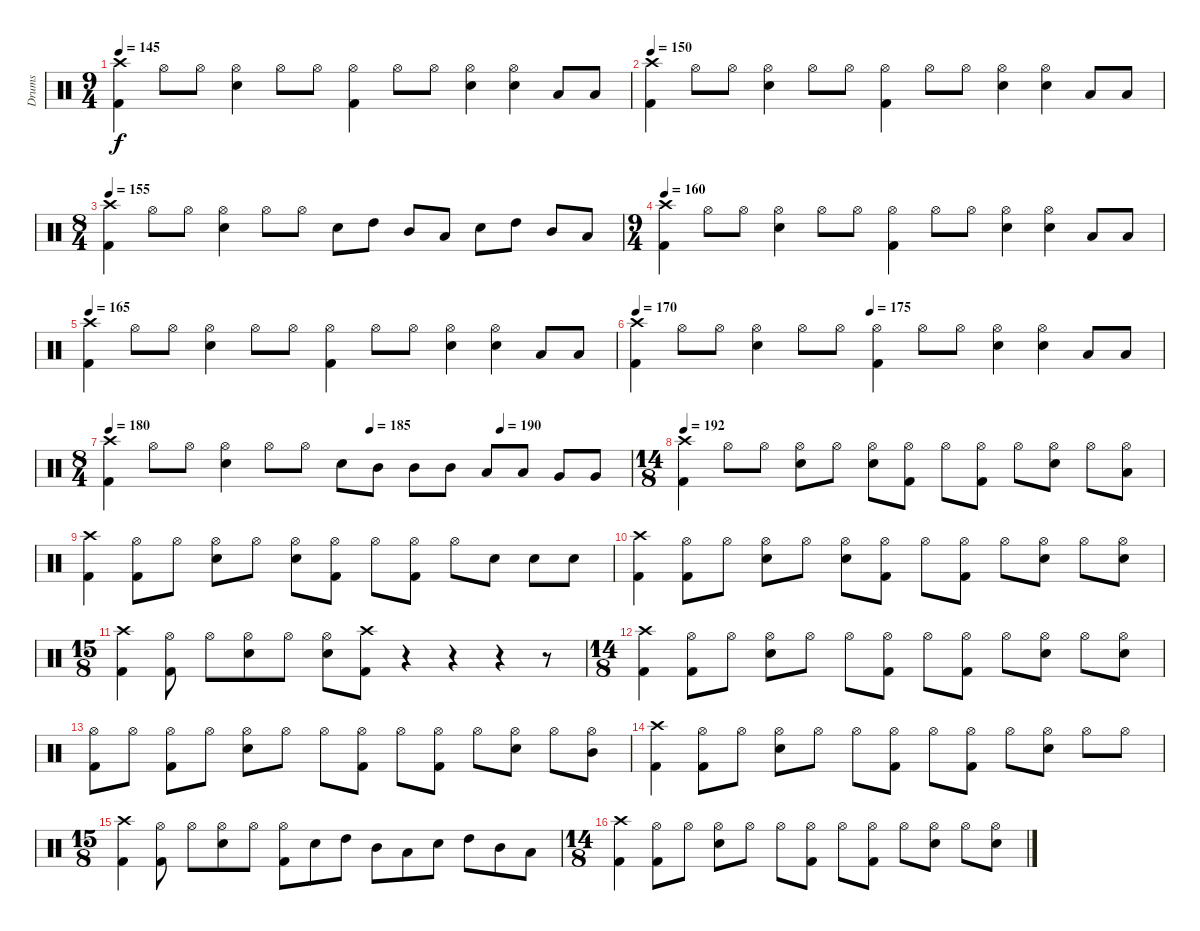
\track ("Drums" "Drums") {instrument percussion}
\staff {score}
\articulation defaults
\ts (9 4)
\tempo 145
\clef neutral
\ks c
("Crash high (hit)" "Kick (hit) 2").4{dy f} "Hi-Hat (open)".8 "Hi-Hat (open)".8 ("Hi-Hat (open)" "Snare (hit) 2").4 "Hi-Hat (open)".8 "Hi-Hat (open)".8 ("Hi-Hat (open)" "Kick (hit) 2").4 "Hi-Hat (open)".8 "Hi-Hat (open)".8 ("Hi-Hat (open)" "Snare (hit) 2").4 ("Hi-Hat (open)" "Snare (hit) 2").4 "Low Tom (hit)".8 "Low Tom (hit)".8 |
\tempo 150
("Crash high (hit)" "Kick (hit) 2").4 "Hi-Hat (open)".8 "Hi-Hat (open)".8 ("Hi-Hat (open)" "Snare (hit) 2").4 "Hi-Hat (open)".8 "Hi-Hat (open)".8 ("Hi-Hat (open)" "Kick (hit) 2").4 "Hi-Hat (open)".8 "Hi-Hat (open)".8 ("Hi-Hat (open)" "Snare (hit) 2").4 ("Hi-Hat (open)" "Snare (hit) 2").4 "Low Tom (hit)".8 "Low Tom (hit)".8 |
\ts (8 4)
\tempo 155
("Crash high (hit)" "Kick (hit) 2").4 "Hi-Hat (open)".8 "Hi-Hat (open)".8 ("Hi-Hat (open)" "Snare (hit) 2").4 "Hi-Hat (open)".8 "Hi-Hat (open)".8 "Snare (hit) 2".8 "High Tom (hit)".8 "Mid Tom (hit)".8 "Low Tom (hit)".8 "Snare (hit) 2".8 "High Tom (hit)".8 "Mid Tom (hit)".8 "Low Tom (hit)".8 |
\ts (9 4)
\tempo 160
("Crash high (hit)" "Kick (hit) 2").4 "Hi-Hat (open)".8 "Hi-Hat (open)".8 ("Hi-Hat (open)" "Snare (hit) 2").4 "Hi-Hat (open)".8 "Hi-Hat (open)".8 ("Hi-Hat (open)" "Kick (hit) 2").4 "Hi-Hat (open)".8 "Hi-Hat (open)".8 ("Hi-Hat (open)" "Snare (hit) 2").4 ("Hi-Hat (open)" "Snare (hit) 2").4 "Low Tom (hit)".8 "Low Tom (hit)".8 |
\tempo 165
("Crash high (hit)" "Kick (hit) 2").4 "Hi-Hat (open)".8 "Hi-Hat (open)".8 ("Hi-Hat (open)" "Snare (hit) 2").4 "Hi-Hat (open)".8 "Hi-Hat (open)".8 ("Hi-Hat (open)" "Kick (hit) 2").4 "Hi-Hat (open)".8 "Hi-Hat (open)".8 ("Hi-Hat (open)" "Snare (hit) 2").4 ("Hi-Hat (open)" "Snare (hit) 2").4 "Low Tom (hit)".8 "Low Tom (hit)".8 |
\tempo 170
\tempo (175 0.4444444444444444)
("Crash high (hit)" "Kick (hit) 2").4 "Hi-Hat (open)".8 "Hi-Hat (open)".8 ("Hi-Hat (open)" "Snare (hit) 2").4 "Hi-Hat (open)".8 "Hi-Hat (open)".8 ("Hi-Hat (open)" "Kick (hit) 2").4 "Hi-Hat (open)".8 "Hi-Hat (open)".8 ("Hi-Hat (open)" "Snare (hit) 2").4 ("Hi-Hat (open)" "Snare (hit) 2").4 "Low Tom (hit)".8 "Low Tom (hit)".8 |
\ts (8 4)
\tempo 180
\tempo (185 0.5)
\tempo (190 0.75)
("Crash high (hit)" "Kick (hit) 2").4 "Hi-Hat (open)".8 "Hi-Hat (open)".8 ("Hi-Hat (open)" "Snare (hit) 2").4 "Hi-Hat (open)".8 "Hi-Hat (open)".8 "Snare (hit) 2".8 "Mid Tom (hit)".8 "Mid Tom (hit)".8 "Mid Tom (hit)".8 "Low Tom (hit)".8 "Low Tom (hit)".8 "Very Low Tom (hit)".8 "Very Low Tom (hit)".8 |
\ts (14 8)
\tempo 192
("Crash high (hit)" "Kick (hit) 2").4 "Hi-Hat (open)".8 "Hi-Hat (open)".8 ("Hi-Hat (open)" "Snare (hit) 2").8 "Hi-Hat (open)".8 ("Hi-Hat (open)" "Snare (hit) 2").8 ("Hi-Hat (open)" "Kick (hit) 2").8 "Hi-Hat (open)".8 ("Hi-Hat (open)" "Kick (hit) 2").8 "Hi-Hat (open)".8 ("Hi-Hat (open)" "Snare (hit) 2").8 "Hi-Hat (open)".8 ("Hi-Hat (open)" "Low Tom (hit)").8 |
("Crash high (hit)" "Kick (hit) 2").4 ("Hi-Hat (open)" "Kick (hit) 2").8 "Hi-Hat (open)".8 ("Hi-Hat (open)" "Snare (hit) 2").8 "Hi-Hat (open)".8 ("Hi-Hat (open)" "Snare (hit) 2").8 ("Hi-Hat (open)" "Kick (hit) 2").8 "Hi-Hat (open)".8 ("Hi-Hat (open)" "Kick (hit) 2").8 "Hi-Hat (open)".8 "Snare (hit) 2".8 "Snare (hit) 2".8 "Snare (hit) 2".8 |
("Crash high (hit)" "Kick (hit) 2").4 ("Hi-Hat (open)" "Kick (hit) 2").8 "Hi-Hat (open)".8 ("Hi-Hat (open)" "Snare (hit) 2").8 "Hi-Hat (open)".8 ("Hi-Hat (open)" "Snare (hit) 2").8 ("Hi-Hat (open)" "Kick (hit) 2").8 "Hi-Hat (open)".8 ("Hi-Hat (open)" "Kick (hit) 2").8 "Hi-Hat (open)".8 ("Hi-Hat (open)" "Snare (hit) 2").8 "Hi-Hat (open)".8 ("Hi-Hat (open)" "Snare (hit) 2").8 |
\ts (15 8)
("Crash high (hit)" "Kick (hit) 2").4 ("Hi-Hat (open)" "Kick (hit) 2").8 "Hi-Hat (open)".8 ("Hi-Hat (open)" "Snare (hit) 2").8 "Hi-Hat (open)".8 ("Hi-Hat (open)" "Snare (hit) 2").8 ("Crash high (hit)" "Kick (hit) 2").8 r.4 r.4 r.4 r.8 |
\ts (14 8)
("Crash high (hit)" "Kick (hit) 2").4 ("Hi-Hat (open)" "Kick (hit) 2").8 "Hi-Hat (open)".8 ("Hi-Hat (open)" "Snare (hit) 2").8 "Hi-Hat (open)".8 "Hi-Hat (open)".8 ("Hi-Hat (open)" "Kick (hit) 2").8 "Hi-Hat (open)".8 ("Hi-Hat (open)" "Kick (hit) 2").8 "Hi-Hat (open)".8 ("Hi-Hat (open)" "Snare (hit) 2").8 "Hi-Hat (open)".8 ("Hi-Hat (open)" "Snare (hit) 2").8 |
("Hi-Hat (open)" "Kick (hit) 2").8 "Hi-Hat (open)".8 ("Hi-Hat (open)" "Kick (hit) 2").8 "Hi-Hat (open)".8 ("Hi-Hat (open)" "Snare (hit) 2").8 "Hi-Hat (open)".8 "Hi-Hat (open)".8 ("Hi-Hat (open)" "Kick (hit) 2").8 "Hi-Hat (open)".8 ("Hi-Hat (open)" "Kick (hit) 2").8 "Hi-Hat (open)".8 ("Hi-Hat (open)" "Snare (hit) 2").8 "Hi-Hat (open)".8 ("Hi-Hat (open)" "Mid Tom (hit)").8 |
("Crash high (hit)" "Kick (hit) 2").4 ("Hi-Hat (open)" "Kick (hit) 2").8 "Hi-Hat (open)".8 ("Hi-Hat (open)" "Snare (hit) 2").8 "Hi-Hat (open)".8 "Hi-Hat (open)".8 ("Hi-Hat (open)" "Kick (hit) 2").8 "Hi-Hat (open)".8 ("Hi-Hat (open)" "Kick (hit) 2").8 "Hi-Hat (open)".8 ("Hi-Hat (open)" "Snare (hit) 2").8 "Hi-Hat (open)".8 "Hi-Hat (open)".8 |
\ts (15 8)
("Crash high (hit)" "Kick (hit) 2").4 ("Hi-Hat (open)" "Kick (hit) 2").8 "Hi-Hat (open)".8 ("Hi-Hat (open)" "Snare (hit) 2").8 "Hi-Hat (open)".8 ("Hi-Hat (open)" "Kick (hit) 2").8 "Snare (hit) 2".8 "High Tom (hit)".8 "Mid Tom (hit)".8 "Low Tom (hit)".8 "Snare (hit) 2".8 "High Tom (hit)".8 "Mid Tom (hit)".8 "Low Tom (hit)".8 |
\ts (14 8)
("Crash high (hit)" "Kick (hit) 2").4 ("Hi-Hat (open)" "Kick (hit) 2").8 "Hi-Hat (open)".8 ("Hi-Hat (open)" "Snare (hit) 2").8 "Hi-Hat (open)".8 "Hi-Hat (open)".8 ("Hi-Hat (open)" "Kick (hit) 2").8 "Hi-Hat (open)".8 ("Hi-Hat (open)" "Kick (hit) 2").8 "Hi-Hat (open)".8 ("Hi-Hat (open)" "Snare (hit) 2").8 "Hi-Hat (open)".8 ("Hi-Hat (open)" "Snare (hit) 2").8
